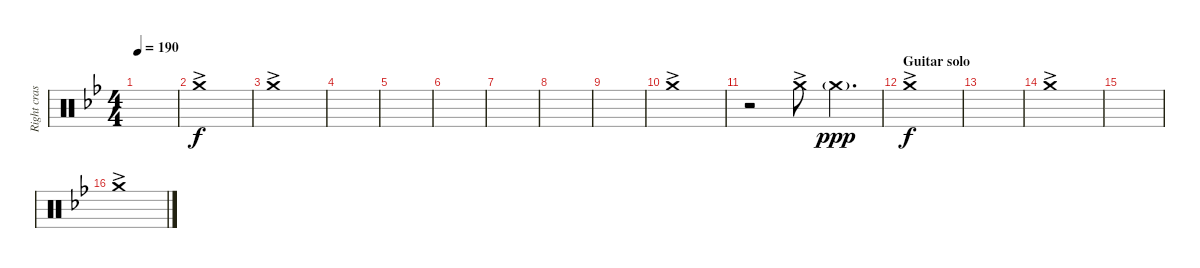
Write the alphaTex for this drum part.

\track ("Right crash" "Right cras") {instrument percussion}
\staff {score}
\articulation defaults
\ts (4 4)
\tempo 190
\clef neutral
\ks bb
|
"Crash medium (hit)"{ac}.1{dy f} |
"Crash medium (hit)"{ac}.1 |
|
|
|
|
|
|
"Crash medium (hit)"{ac}.1 |
r.2 "Crash medium (hit)"{ac}.8 "Crash medium (hit)"{g}.4{d dy ppp} |
\section ("" "Guitar solo")
"Crash medium (hit)"{ac}.1{dy f} |
|
"Crash medium (hit)"{ac}.1 |
|
"Crash medium (hit)"{ac}.1
